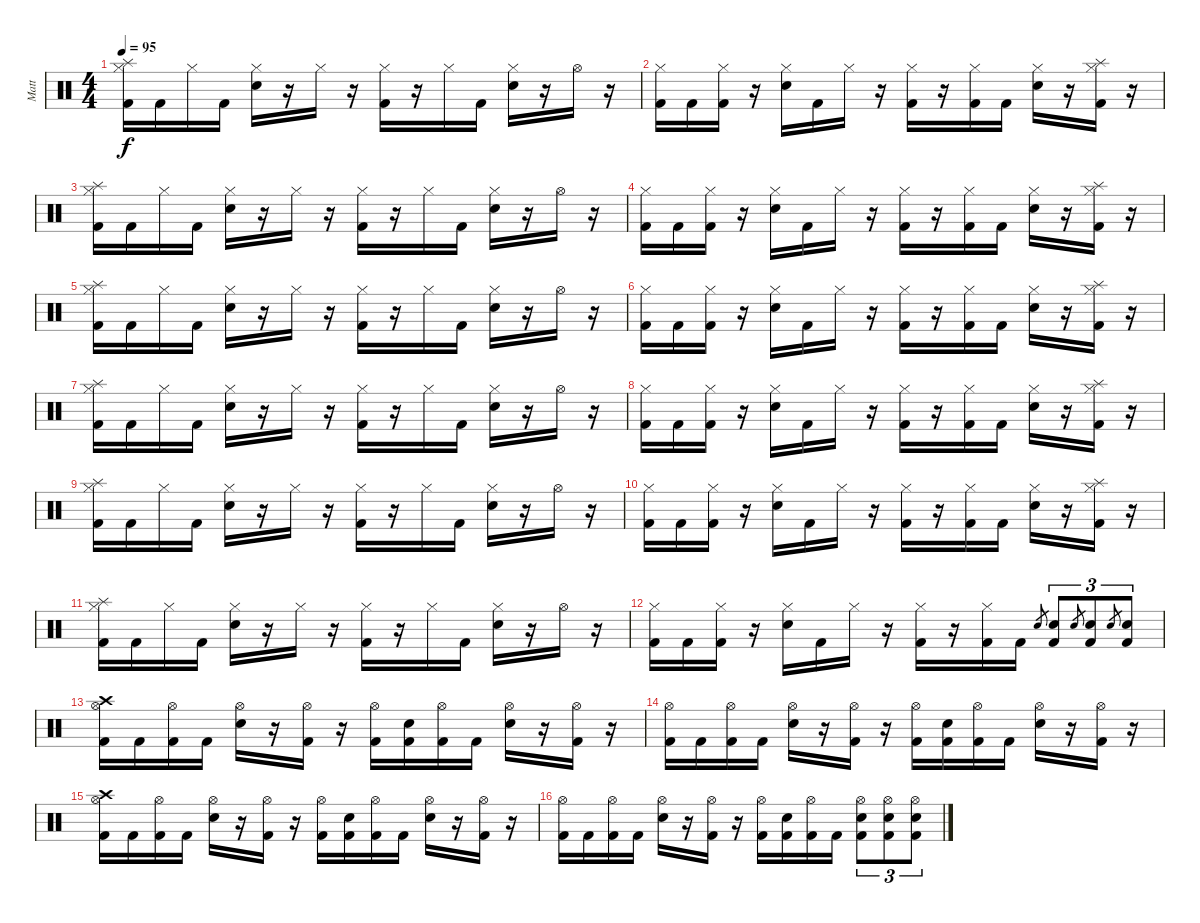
\track ("Matt" "Matt") {instrument percussion}
\staff {score}
\articulation defaults
\ts (4 4)
\tempo 95
\clef neutral
\ks c
("Hi-Hat (closed)" "Splash (hit)" "Kick (hit) 2").16{dy f} "Kick (hit) 2".16 "Hi-Hat (closed)".16 "Kick (hit) 2".16 ("Hi-Hat (closed)" "Snare (hit) 2").16 r.16 "Hi-Hat (closed)".16 r.16 ("Hi-Hat (closed)" "Kick (hit) 2").16 r.16 "Hi-Hat (closed)".16 "Kick (hit) 2".16 ("Hi-Hat (closed)" "Snare (hit) 2").16 r.16 "Hi-Hat (open)".16 r.16 |
("Hi-Hat (closed)" "Kick (hit) 2").16 "Kick (hit) 2".16 ("Hi-Hat (closed)" "Kick (hit) 2").16 r.16 ("Hi-Hat (closed)" "Snare (hit) 2").16 "Kick (hit) 2".16 "Hi-Hat (closed)".16 r.16 ("Hi-Hat (closed)" "Kick (hit) 2").16 r.16 ("Hi-Hat (closed)" "Kick (hit) 2").16 "Kick (hit) 2".16 ("Hi-Hat (closed)" "Snare (hit) 2").16 r.16 ("Hi-Hat (closed)" "Kick (hit) 2" "Splash (hit)").16 r.16 |
("Hi-Hat (closed)" "Splash (hit)" "Kick (hit) 2").16 "Kick (hit) 2".16 "Hi-Hat (closed)".16 "Kick (hit) 2".16 ("Hi-Hat (closed)" "Snare (hit) 2").16 r.16 "Hi-Hat (closed)".16 r.16 ("Hi-Hat (closed)" "Kick (hit) 2").16 r.16 "Hi-Hat (closed)".16 "Kick (hit) 2".16 ("Hi-Hat (closed)" "Snare (hit) 2").16 r.16 "Hi-Hat (open)".16 r.16 |
("Hi-Hat (closed)" "Kick (hit) 2").16 "Kick (hit) 2".16 ("Hi-Hat (closed)" "Kick (hit) 2").16 r.16 ("Hi-Hat (closed)" "Snare (hit) 2").16 "Kick (hit) 2".16 "Hi-Hat (closed)".16 r.16 ("Hi-Hat (closed)" "Kick (hit) 2").16 r.16 ("Hi-Hat (closed)" "Kick (hit) 2").16 "Kick (hit) 2".16 ("Hi-Hat (closed)" "Snare (hit) 2").16 r.16 ("Hi-Hat (closed)" "Splash (hit)" "Kick (hit) 2").16 r.16 |
("Hi-Hat (closed)" "Splash (hit)" "Kick (hit) 2").16 "Kick (hit) 2".16 "Hi-Hat (closed)".16 "Kick (hit) 2".16 ("Hi-Hat (closed)" "Snare (hit) 2").16 r.16 "Hi-Hat (closed)".16 r.16 ("Hi-Hat (closed)" "Kick (hit) 2").16 r.16 "Hi-Hat (closed)".16 "Kick (hit) 2".16 ("Hi-Hat (closed)" "Snare (hit) 2").16 r.16 "Hi-Hat (open)".16 r.16 |
("Hi-Hat (closed)" "Kick (hit) 2").16 "Kick (hit) 2".16 ("Hi-Hat (closed)" "Kick (hit) 2").16 r.16 ("Hi-Hat (closed)" "Snare (hit) 2").16 "Kick (hit) 2".16 "Hi-Hat (closed)".16 r.16 ("Hi-Hat (closed)" "Kick (hit) 2").16 r.16 ("Hi-Hat (closed)" "Kick (hit) 2").16 "Kick (hit) 2".16 ("Hi-Hat (closed)" "Snare (hit) 2").16 r.16 ("Hi-Hat (closed)" "Kick (hit) 2" "Splash (hit)").16 r.16 |
("Hi-Hat (closed)" "Splash (hit)" "Kick (hit) 2").16 "Kick (hit) 2".16 "Hi-Hat (closed)".16 "Kick (hit) 2".16 ("Hi-Hat (closed)" "Snare (hit) 2").16 r.16 "Hi-Hat (closed)".16 r.16 ("Hi-Hat (closed)" "Kick (hit) 2").16 r.16 "Hi-Hat (closed)".16 "Kick (hit) 2".16 ("Hi-Hat (closed)" "Snare (hit) 2").16 r.16 "Hi-Hat (open)".16 r.16 |
("Hi-Hat (closed)" "Kick (hit) 2").16 "Kick (hit) 2".16 ("Hi-Hat (closed)" "Kick (hit) 2").16 r.16 ("Hi-Hat (closed)" "Snare (hit) 2").16 "Kick (hit) 2".16 "Hi-Hat (closed)".16 r.16 ("Hi-Hat (closed)" "Kick (hit) 2").16 r.16 ("Hi-Hat (closed)" "Kick (hit) 2").16 "Kick (hit) 2".16 ("Hi-Hat (closed)" "Snare (hit) 2").16 r.16 ("Hi-Hat (closed)" "Splash (hit)" "Kick (hit) 2").16 r.16 |
("Hi-Hat (closed)" "Splash (hit)" "Kick (hit) 2").16 "Kick (hit) 2".16 "Hi-Hat (closed)".16 "Kick (hit) 2".16 ("Hi-Hat (closed)" "Snare (hit) 2").16 r.16 "Hi-Hat (closed)".16 r.16 ("Hi-Hat (closed)" "Kick (hit) 2").16 r.16 "Hi-Hat (closed)".16 "Kick (hit) 2".16 ("Hi-Hat (closed)" "Snare (hit) 2").16 r.16 "Hi-Hat (open)".16 r.16 |
("Hi-Hat (closed)" "Kick (hit) 2").16 "Kick (hit) 2".16 ("Hi-Hat (closed)" "Kick (hit) 2").16 r.16 ("Hi-Hat (closed)" "Snare (hit) 2").16 "Kick (hit) 2".16 "Hi-Hat (closed)".16 r.16 ("Hi-Hat (closed)" "Kick (hit) 2").16 r.16 ("Hi-Hat (closed)" "Kick (hit) 2").16 "Kick (hit) 2".16 ("Hi-Hat (closed)" "Snare (hit) 2").16 r.16 ("Hi-Hat (closed)" "Kick (hit) 2" "Splash (hit)").16 r.16 |
("Hi-Hat (closed)" "Splash (hit)" "Kick (hit) 2").16 "Kick (hit) 2".16 "Hi-Hat (closed)".16 "Kick (hit) 2".16 ("Hi-Hat (closed)" "Snare (hit) 2").16 r.16 "Hi-Hat (closed)".16 r.16 ("Hi-Hat (closed)" "Kick (hit) 2").16 r.16 "Hi-Hat (closed)".16 "Kick (hit) 2".16 ("Hi-Hat (closed)" "Snare (hit) 2").16 r.16 "Hi-Hat (open)".16 r.16 |
("Hi-Hat (closed)" "Kick (hit) 2").16 "Kick (hit) 2".16 ("Hi-Hat (closed)" "Kick (hit) 2").16 r.16 ("Hi-Hat (closed)" "Snare (hit) 2").16 "Kick (hit) 2".16 "Hi-Hat (closed)".16 r.16 ("Hi-Hat (closed)" "Kick (hit) 2").16 r.16 ("Hi-Hat (closed)" "Kick (hit) 2").16 "Kick (hit) 2".16 "Snare (hit) 2".8{gr} ("Kick (hit) 2" "Snare (hit) 2").8{tu (3 2)} "Snare (hit) 2".8{gr} ("Kick (hit) 2" "Snare (hit) 2").8{tu (3 2)} "Snare (hit) 2".8{gr} ("Kick (hit) 2" "Snare (hit) 2").8{tu (3 2)} |
("Crash high (hit)" "Hi-Hat (open)" "Kick (hit) 2").16 "Kick (hit) 2".16 ("Hi-Hat (open)" "Kick (hit) 2").16 "Kick (hit) 2".16 ("Hi-Hat (open)" "Snare (hit) 2").16 r.16 ("Hi-Hat (open)" "Kick (hit) 2").16 r.16 ("Hi-Hat (open)" "Kick (hit) 2").16 ("Snare (hit) 2" "Kick (hit) 2").16 ("Hi-Hat (open)" "Kick (hit) 2").16 "Kick (hit) 2".16 ("Hi-Hat (open)" "Snare (hit) 2").16 r.16 ("Hi-Hat (open)" "Kick (hit) 2").16 r.16 |
("Hi-Hat (open)" "Kick (hit) 2").16 "Kick (hit) 2".16 ("Hi-Hat (open)" "Kick (hit) 2").16 "Kick (hit) 2".16 ("Hi-Hat (open)" "Snare (hit) 2").16 r.16 ("Hi-Hat (open)" "Kick (hit) 2").16 r.16 ("Hi-Hat (open)" "Kick (hit) 2").16 ("Snare (hit) 2" "Kick (hit) 2").16 ("Hi-Hat (open)" "Kick (hit) 2").16 "Kick (hit) 2".16 ("Hi-Hat (open)" "Snare (hit) 2").16 r.16 ("Hi-Hat (open)" "Kick (hit) 2").16 r.16 |
("Crash high (hit)" "Hi-Hat (open)" "Kick (hit) 2").16 "Kick (hit) 2".16 ("Hi-Hat (open)" "Kick (hit) 2").16 "Kick (hit) 2".16 ("Hi-Hat (open)" "Snare (hit) 2").16 r.16 ("Hi-Hat (open)" "Kick (hit) 2").16 r.16 ("Hi-Hat (open)" "Kick (hit) 2").16 ("Snare (hit) 2" "Kick (hit) 2").16 ("Hi-Hat (open)" "Kick (hit) 2").16 "Kick (hit) 2".16 ("Hi-Hat (open)" "Snare (hit) 2").16 r.16 ("Hi-Hat (open)" "Kick (hit) 2").16 r.16 |
("Hi-Hat (open)" "Kick (hit) 2").16 "Kick (hit) 2".16 ("Hi-Hat (open)" "Kick (hit) 2").16 "Kick (hit) 2".16 ("Hi-Hat (open)" "Snare (hit) 2").16 r.16 ("Hi-Hat (open)" "Kick (hit) 2").16 r.16 ("Hi-Hat (open)" "Kick (hit) 2").16 ("Snare (hit) 2" "Kick (hit) 2").16 ("Hi-Hat (open)" "Kick (hit) 2").16 "Kick (hit) 2".16 ("Hi-Hat (open)" "Kick (hit) 2" "Snare (hit) 2").8{tu (3 2)} ("Hi-Hat (open)" "Kick (hit) 2" "Snare (hit) 2").8{tu (3 2)} ("Hi-Hat (open)" "Kick (hit) 2" "Snare (hit) 2").8{tu (3 2)}
